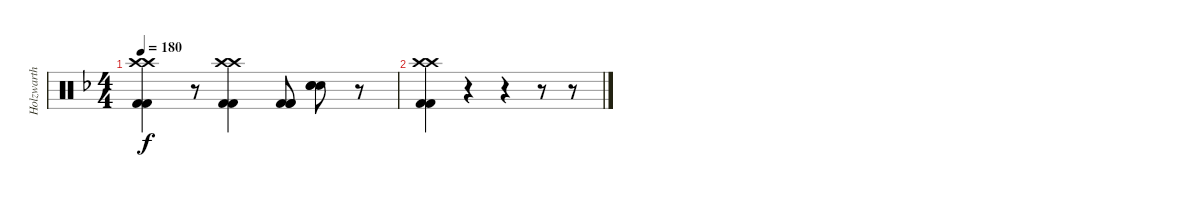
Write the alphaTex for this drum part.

\track ("Holzwarth" "Holzwarth") {instrument percussion}
\staff {score}
\articulation defaults
\ts (4 4)
\tempo 180
\clef neutral
\ks dminor
("Kick (hit) 2" "Kick (hit) 2" "Crash high (hit)" "Crash high (hit)").4{dy f} r.8 ("Kick (hit) 2" "Kick (hit) 2" "Crash high (hit)" "Crash high (hit)").4 ("Kick (hit) 2" "Kick (hit) 2" "Kick (hit) 2").8 ("Snare (hit) 2" "Snare (hit) 2" "Snare (hit) 2").8 r.8 |
("Kick (hit) 2" "Kick (hit) 2" "Crash high (hit)" "Crash high (hit)").4 r.4 r.4 r.8 r.8
